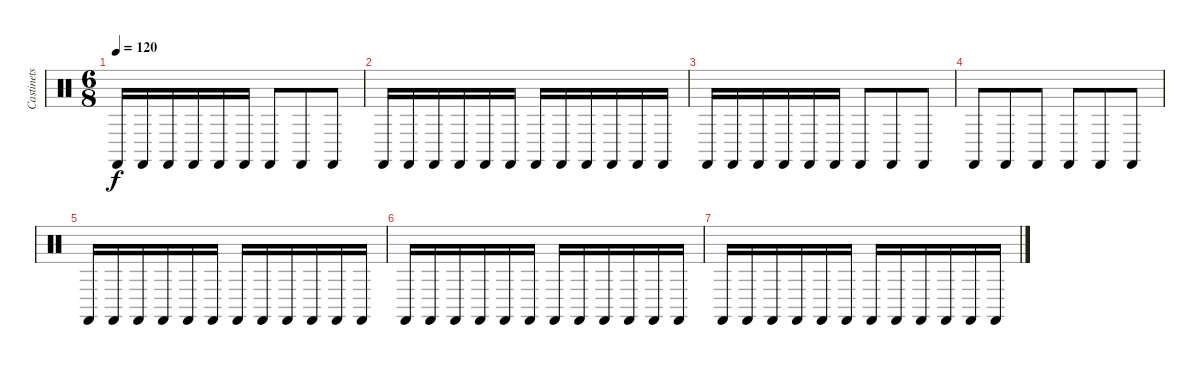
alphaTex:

\track ("Castinets" "Castinets") {instrument percussion}
\staff {score}
\articulation defaults
\ts (6 8)
\tempo 120
\clef neutral
\ks c "Castanets (hit)".16{dy f} "Castanets (hit)".16 "Castanets (hit)".16 "Castanets (hit)".16 "Castanets (hit)".16 "Castanets (hit)".16 "Castanets (hit)".8 "Castanets (hit)".8 "Castanets (hit)".8
|
"Castanets (hit)".16 "Castanets (hit)".16 "Castanets (hit)".16 "Castanets (hit)".16 "Castanets (hit)".16 "Castanets (hit)".16 "Castanets (hit)".16 "Castanets (hit)".16 "Castanets (hit)".16 "Castanets (hit)".16 "Castanets (hit)".16 "Castanets (hit)".16 |
"Castanets (hit)".16 "Castanets (hit)".16 "Castanets (hit)".16 "Castanets (hit)".16 "Castanets (hit)".16 "Castanets (hit)".16 "Castanets (hit)".8 "Castanets (hit)".8 "Castanets (hit)".8 |
"Castanets (hit)".8 "Castanets (hit)".8 "Castanets (hit)".8 "Castanets (hit)".8 "Castanets (hit)".8 "Castanets (hit)".8 |
"Castanets (hit)".16 "Castanets (hit)".16 "Castanets (hit)".16 "Castanets (hit)".16 "Castanets (hit)".16 "Castanets (hit)".16 "Castanets (hit)".16 "Castanets (hit)".16 "Castanets (hit)".16 "Castanets (hit)".16 "Castanets (hit)".16 "Castanets (hit)".16 |
"Castanets (hit)".16 "Castanets (hit)".16 "Castanets (hit)".16 "Castanets (hit)".16 "Castanets (hit)".16 "Castanets (hit)".16 "Castanets (hit)".16 "Castanets (hit)".16 "Castanets (hit)".16 "Castanets (hit)".16 "Castanets (hit)".16 "Castanets (hit)".16 |
"Castanets (hit)".16 "Castanets (hit)".16 "Castanets (hit)".16 "Castanets (hit)".16 "Castanets (hit)".16 "Castanets (hit)".16 "Castanets (hit)".16 "Castanets (hit)".16 "Castanets (hit)".16 "Castanets (hit)".16 "Castanets (hit)".16 "Castanets (hit)".16
